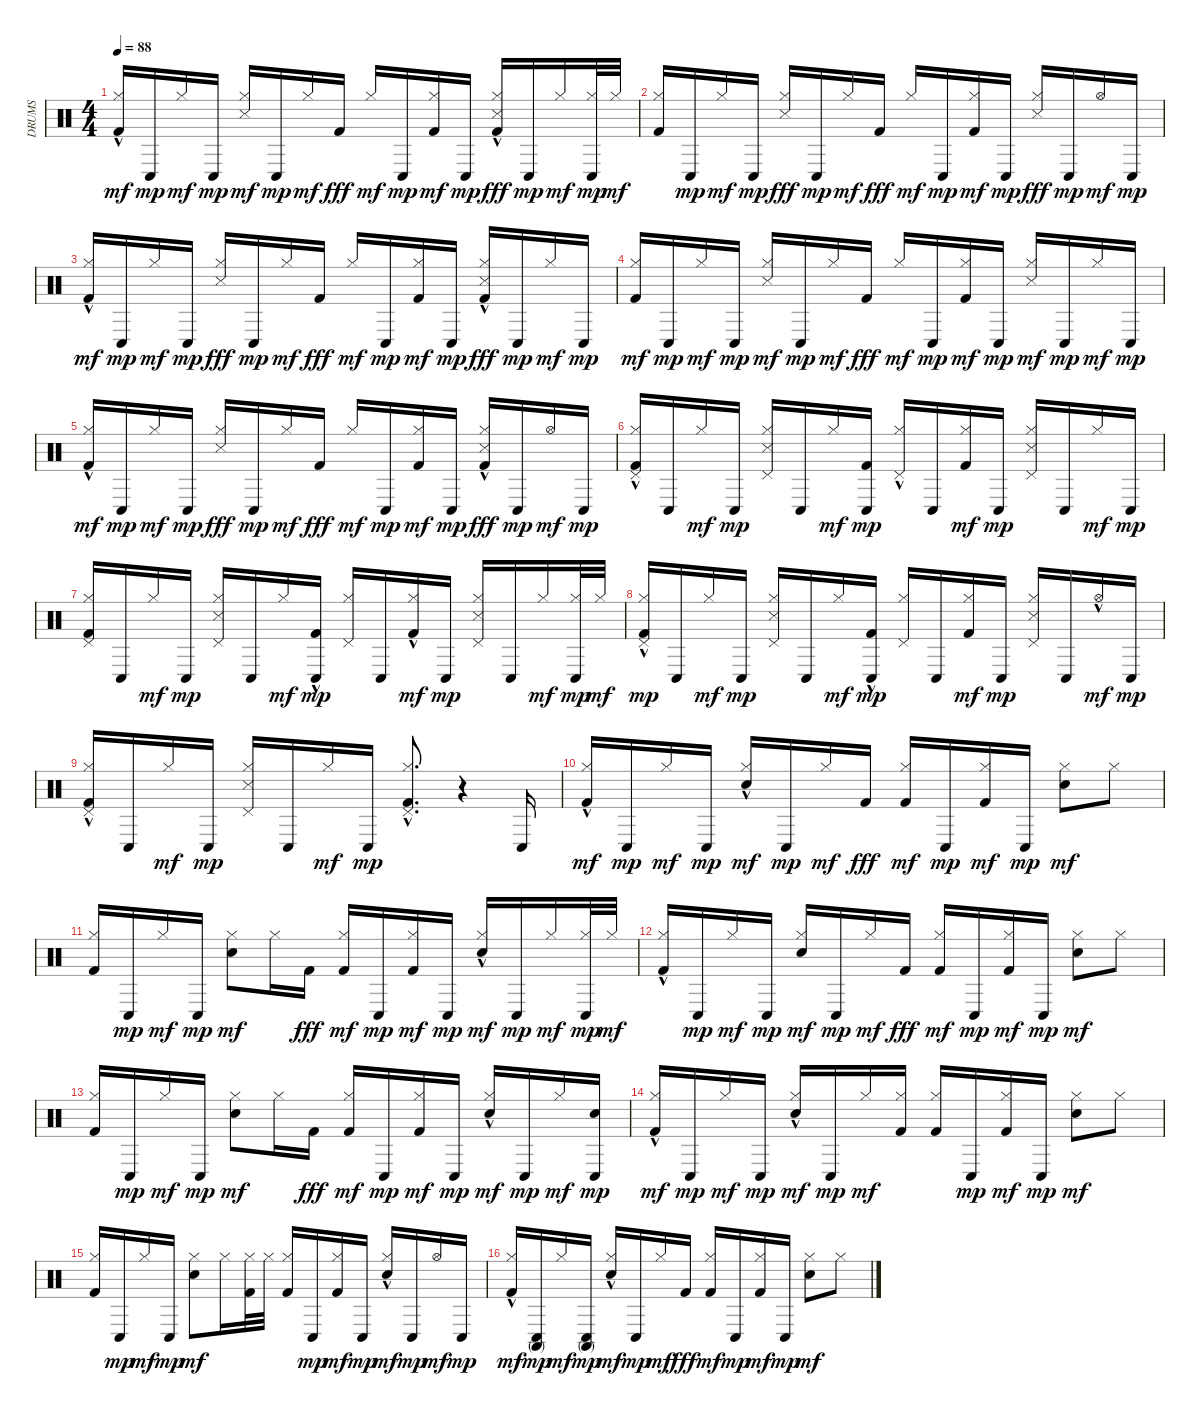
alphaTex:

\track ("DRUMS" "DRUMS") {instrument percussion}
\staff {score}
\articulation defaults
\ts (4 4)
\tempo 88
\clef neutral
\ks c
("Kick (hit) 2"{hac} "Hi-Hat (closed)").16{dy mf} "Conga low (hit)".16{dy mp} "Hi-Hat (closed)".16{dy mf} "Conga low (hit)".16{dy mp} ("Snare (side stick) 3" "Hi-Hat (closed)").16{dy mf} "Conga low (hit)".16{dy mp} "Hi-Hat (closed)".16{dy mf} "Kick (hit) 2".16{dy fff} "Hi-Hat (closed)".16{dy mf} "Conga low (hit)".16{dy mp} ("Kick (hit) 2" "Hi-Hat (closed)").16{dy mf} "Conga low (hit)".16{dy mp} ("Kick (hit) 2"{hac} "Hi-Hat (closed)" "Snare (side stick) 3").16{dy fff} "Conga low (hit)".16{dy mp} "Hi-Hat (closed)".16{dy mf} ("Hi-Hat (closed)" "Conga low (hit)").32{dy mp} "Hi-Hat (closed)".32{dy mf} |
("Kick (hit) 2" "Hi-Hat (closed)").16 "Conga low (hit)".16{dy mp} "Hi-Hat (closed)".16{dy mf} "Conga low (hit)".16{dy mp} ("Hi-Hat (closed)" "Snare (side stick) 3").16{dy fff} "Conga low (hit)".16{dy mp} "Hi-Hat (closed)".16{dy mf} "Kick (hit) 2".16{dy fff} "Hi-Hat (closed)".16{dy mf} "Conga low (hit)".16{dy mp} ("Kick (hit) 2" "Hi-Hat (closed)").16{dy mf} "Conga low (hit)".16{dy mp} ("Hi-Hat (closed)" "Snare (side stick) 3").16{dy fff} "Conga low (hit)".16{dy mp} "Hi-Hat (open)".16{dy mf} "Conga low (hit)".16{dy mp} |
("Kick (hit) 2"{hac} "Hi-Hat (closed)").16{dy mf} "Conga low (hit)".16{dy mp} "Hi-Hat (closed)".16{dy mf} "Conga low (hit)".16{dy mp} ("Hi-Hat (closed)" "Snare (side stick) 3").16{dy fff} "Conga low (hit)".16{dy mp} "Hi-Hat (closed)".16{dy mf} "Kick (hit) 2".16{dy fff} "Hi-Hat (closed)".16{dy mf} "Conga low (hit)".16{dy mp} ("Kick (hit) 2" "Hi-Hat (closed)").16{dy mf} "Conga low (hit)".16{dy mp} ("Kick (hit) 2"{hac} "Hi-Hat (closed)" "Snare (side stick) 3").16{dy fff} "Conga low (hit)".16{dy mp} "Hi-Hat (closed)".16{dy mf} "Conga low (hit)".16{dy mp} |
("Kick (hit) 2" "Hi-Hat (closed)").16{dy mf} "Conga low (hit)".16{dy mp} "Hi-Hat (closed)".16{dy mf} "Conga low (hit)".16{dy mp} ("Snare (side stick) 3" "Hi-Hat (closed)").16{dy mf} "Conga low (hit)".16{dy mp} "Hi-Hat (closed)".16{dy mf} "Kick (hit) 2".16{dy fff} "Hi-Hat (closed)".16{dy mf} "Conga low (hit)".16{dy mp} ("Kick (hit) 2" "Hi-Hat (closed)").16{dy mf} "Conga low (hit)".16{dy mp} ("Snare (side stick) 3" "Hi-Hat (closed)").16{dy mf} "Conga low (hit)".16{dy mp} "Hi-Hat (closed)".16{dy mf} "Conga low (hit)".16{dy mp} |
("Kick (hit) 2"{hac} "Hi-Hat (closed)").16{dy mf} "Conga low (hit)".16{dy mp} "Hi-Hat (closed)".16{dy mf} "Conga low (hit)".16{dy mp} ("Hi-Hat (closed)" "Snare (side stick) 3").16{dy fff} "Conga low (hit)".16{dy mp} "Hi-Hat (closed)".16{dy mf} "Kick (hit) 2".16{dy fff} "Hi-Hat (closed)".16{dy mf} "Conga low (hit)".16{dy mp} ("Kick (hit) 2" "Hi-Hat (closed)").16{dy mf} "Conga low (hit)".16{dy mp} ("Kick (hit) 2"{hac} "Hi-Hat (closed)" "Snare (side stick) 3").16{dy fff} "Conga low (hit)".16{dy mp} "Hi-Hat (open)".16{dy mf} "Conga low (hit)".16{dy mp} |
("Kick (hit) 2"{hac} "Hi-Hat (closed)" "Pedal Hi-Hat (hit)").16 "Conga low (hit)".16 "Hi-Hat (closed)".16{dy mf} "Conga low (hit)".16{dy mp} ("Snare (side stick) 3" "Hi-Hat (closed)" "Pedal Hi-Hat (hit)").16 "Conga low (hit)".16 "Hi-Hat (closed)".16{dy mf} ("Kick (hit) 2" "Conga low (hit)").16{dy mp} ("Hi-Hat (closed)" "Pedal Hi-Hat (hit)"{hac}).16 "Conga low (hit)".16 ("Kick (hit) 2" "Hi-Hat (closed)").16{dy mf} "Conga low (hit)".16{dy mp} ("Snare (side stick) 3" "Hi-Hat (closed)" "Pedal Hi-Hat (hit)").16 "Conga low (hit)".16 "Hi-Hat (closed)".16{dy mf} "Conga low (hit)".16{dy mp} |
("Kick (hit) 2" "Hi-Hat (closed)" "Pedal Hi-Hat (hit)").16 "Conga low (hit)".16 "Hi-Hat (closed)".16{dy mf} "Conga low (hit)".16{dy mp} ("Hi-Hat (closed)" "Snare (side stick) 3" "Pedal Hi-Hat (hit)").16 "Conga low (hit)".16 "Hi-Hat (closed)".16{dy mf} ("Kick (hit) 2"{hac} "Conga low (hit)").16{dy mp} ("Hi-Hat (closed)" "Pedal Hi-Hat (hit)").16 "Conga low (hit)".16 ("Kick (hit) 2"{hac} "Hi-Hat (closed)").16{dy mf} "Conga low (hit)".16{dy mp} ("Hi-Hat (closed)" "Snare (side stick) 3" "Pedal Hi-Hat (hit)").16 "Conga low (hit)".16 "Hi-Hat (closed)".16{dy mf} ("Hi-Hat (closed)" "Conga low (hit)").32{dy mp} "Hi-Hat (closed)".32{dy mf} |
("Kick (hit) 2"{hac} "Hi-Hat (closed)" "Pedal Hi-Hat (hit)").16{dy mp} "Conga low (hit)".16 "Hi-Hat (closed)".16{dy mf} "Conga low (hit)".16{dy mp} ("Hi-Hat (closed)" "Snare (side stick) 3" "Pedal Hi-Hat (hit)").16 "Conga low (hit)".16 "Hi-Hat (closed)".16{dy mf} ("Kick (hit) 2"{hac} "Conga low (hit)").16{dy mp} ("Hi-Hat (closed)" "Pedal Hi-Hat (hit)").16 "Conga low (hit)".16 ("Kick (hit) 2" "Hi-Hat (closed)").16{dy mf} "Conga low (hit)".16{dy mp} ("Snare (side stick) 3" "Hi-Hat (closed)" "Pedal Hi-Hat (hit)").16 "Conga low (hit)".16 "Hi-Hat (open)"{hac}.16{dy mf} "Conga low (hit)".16{dy mp} |
("Kick (hit) 2"{hac} "Hi-Hat (closed)" "Pedal Hi-Hat (hit)").16 "Conga low (hit)".16 "Hi-Hat (closed)".16{dy mf} "Conga low (hit)".16{dy mp} ("Snare (side stick) 3" "Hi-Hat (closed)" "Pedal Hi-Hat (hit)").16 "Conga low (hit)".16 "Hi-Hat (closed)".16{dy mf} "Conga low (hit)".16{dy mp} ("Kick (hit) 2"{hac} "Hi-Hat (closed)" "Pedal Hi-Hat (hit)"{hac}).8{d} r.4 "Conga low (hit)".16 |
("Kick (hit) 2"{hac} "Hi-Hat (closed)").16{dy mf} "Conga low (hit)".16{dy mp} "Hi-Hat (closed)".16{dy mf} "Conga low (hit)".16{dy mp} ("Snare (hit) 2"{hac} "Hi-Hat (closed)").16{dy mf} "Conga low (hit)".16{dy mp} "Hi-Hat (closed)".16{dy mf} "Kick (hit) 2".16{dy fff} ("Kick (hit) 2" "Hi-Hat (closed)").16{dy mf} "Conga low (hit)".16{dy mp} ("Kick (hit) 2" "Hi-Hat (closed)").16{dy mf} "Conga low (hit)".16{dy mp} ("Snare (hit) 2" "Hi-Hat (closed)").8{dy mf} "Hi-Hat (closed)".8 |
("Kick (hit) 2" "Hi-Hat (closed)").16 "Conga low (hit)".16{dy mp} "Hi-Hat (closed)".16{dy mf} "Conga low (hit)".16{dy mp} ("Snare (hit) 2" "Hi-Hat (closed)").8{dy mf} "Hi-Hat (closed)".16 "Kick (hit) 2".16{dy fff} ("Kick (hit) 2" "Hi-Hat (closed)").16{dy mf} "Conga low (hit)".16{dy mp} ("Kick (hit) 2" "Hi-Hat (closed)").16{dy mf} "Conga low (hit)".16{dy mp} ("Snare (hit) 2"{hac} "Hi-Hat (closed)").16{dy mf} "Conga low (hit)".16{dy mp} "Hi-Hat (closed)".16{dy mf} ("Hi-Hat (closed)" "Conga low (hit)").32{dy mp} "Hi-Hat (closed)".32{dy mf} |
("Kick (hit) 2"{hac} "Hi-Hat (closed)").16 "Conga low (hit)".16{dy mp} "Hi-Hat (closed)".16{dy mf} "Conga low (hit)".16{dy mp} ("Snare (hit) 2" "Hi-Hat (closed)").16{dy mf} "Conga low (hit)".16{dy mp} "Hi-Hat (closed)".16{dy mf} "Kick (hit) 2".16{dy fff} ("Kick (hit) 2" "Hi-Hat (closed)").16{dy mf} "Conga low (hit)".16{dy mp} ("Kick (hit) 2" "Hi-Hat (closed)").16{dy mf} "Conga low (hit)".16{dy mp} ("Snare (hit) 2" "Hi-Hat (closed)").8{dy mf} "Hi-Hat (closed)".8 |
("Kick (hit) 2" "Hi-Hat (closed)").16 "Conga low (hit)".16{dy mp} "Hi-Hat (closed)".16{dy mf} "Conga low (hit)".16{dy mp} ("Snare (hit) 2" "Hi-Hat (closed)").8{dy mf} "Hi-Hat (closed)".16 "Kick (hit) 2".16{dy fff} ("Kick (hit) 2" "Hi-Hat (closed)").16{dy mf} "Conga low (hit)".16{dy mp} ("Kick (hit) 2" "Hi-Hat (closed)").16{dy mf} "Conga low (hit)".16{dy mp} ("Snare (hit) 2"{hac} "Hi-Hat (closed)").16{dy mf} "Conga low (hit)".16{dy mp} "Hi-Hat (closed)".16{dy mf} ("Snare (hit) 2" "Conga low (hit)").16{dy mp} |
("Kick (hit) 2"{hac} "Hi-Hat (closed)").16{dy mf} "Conga low (hit)".16{dy mp} "Hi-Hat (closed)".16{dy mf} "Conga low (hit)".16{dy mp} ("Snare (hit) 2"{hac} "Hi-Hat (closed)").16{dy mf} "Conga low (hit)".16{dy mp} "Hi-Hat (closed)".16{dy mf} ("Kick (hit) 2" "Hi-Hat (closed)").16 ("Kick (hit) 2" "Hi-Hat (closed)").16 "Conga low (hit)".16{dy mp} ("Kick (hit) 2" "Hi-Hat (closed)").16{dy mf} "Conga low (hit)".16{dy mp} ("Snare (hit) 2" "Hi-Hat (closed)").8{dy mf} "Hi-Hat (closed)".8 |
("Kick (hit) 2" "Hi-Hat (closed)").16 "Conga low (hit)".16{dy mp} "Hi-Hat (closed)".16{dy mf} "Conga low (hit)".16{dy mp} ("Snare (hit) 2" "Hi-Hat (closed)").8{dy mf} "Hi-Hat (closed)".16 ("Kick (hit) 2" "Hi-Hat (closed)").32 "Hi-Hat (closed)".32 ("Kick (hit) 2" "Hi-Hat (closed)").16 "Conga low (hit)".16{dy mp} ("Kick (hit) 2" "Hi-Hat (closed)").16{dy mf} "Conga low (hit)".16{dy mp} ("Snare (hit) 2"{hac} "Hi-Hat (closed)").16{dy mf} "Conga low (hit)".16{dy mp} "Hi-Hat (open)".16{dy mf} "Conga low (hit)".16{dy mp} |
("Kick (hit) 2"{hac} "Hi-Hat (closed)").16{dy mf} ("Conga low (hit)" "Conga high (mute)").16{dy mp} "Hi-Hat (closed)".16{dy mf} ("Conga low (hit)" "Conga high (mute)").16{dy mp} ("Snare (hit) 2"{hac} "Hi-Hat (closed)").16{dy mf} "Conga low (hit)".16{dy mp} "Hi-Hat (closed)".16{dy mf} "Kick (hit) 2".16{dy fff} ("Kick (hit) 2" "Hi-Hat (closed)").16{dy mf} "Conga low (hit)".16{dy mp} ("Kick (hit) 2" "Hi-Hat (closed)").16{dy mf} "Conga low (hit)".16{dy mp} ("Snare (hit) 2" "Hi-Hat (closed)").8{dy mf} "Hi-Hat (closed)".8
